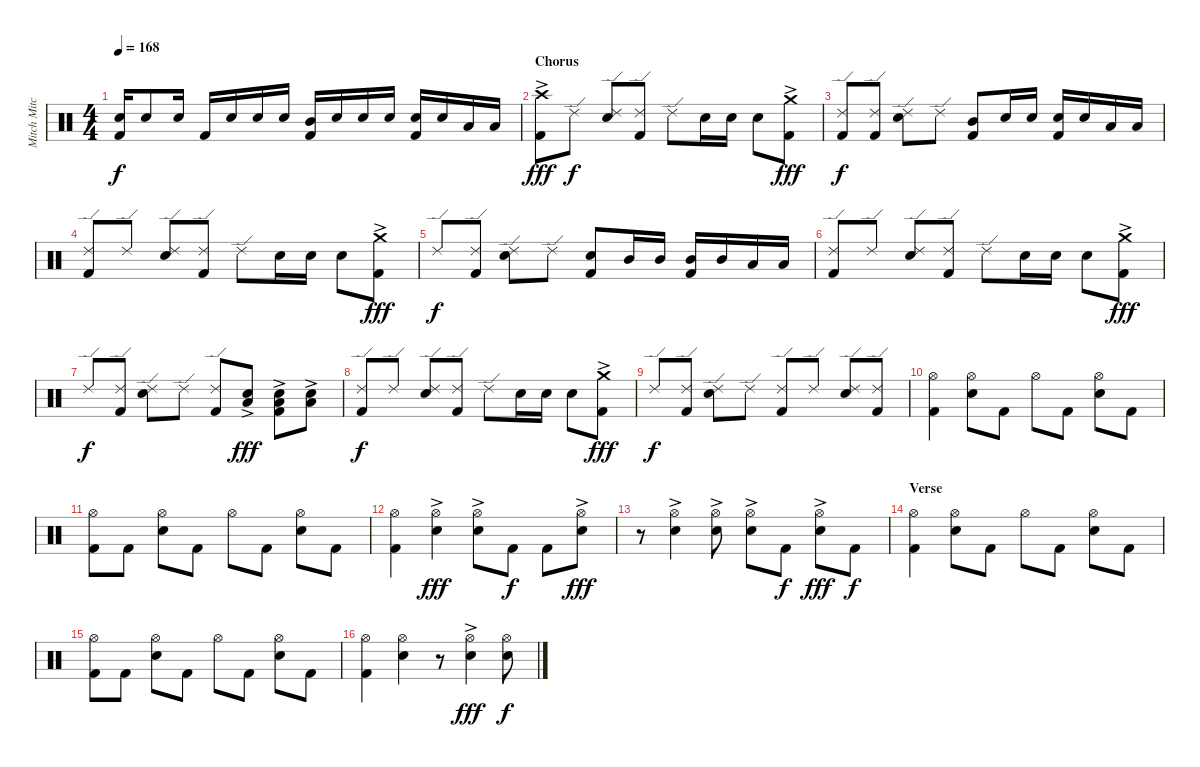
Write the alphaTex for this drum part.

\track ("Mitch Mitchell" "Mitch Mitc") {instrument percussion}
\staff {score}
\articulation defaults
\ts (4 4)
\tempo 168
\clef neutral
\ks c
("Snare (hit) 2" "Kick (hit) 2").16{dy f} "Snare (hit) 2".8 "Snare (hit) 2".16 "Kick (hit) 2".16 "Snare (hit) 2".16 "Snare (hit) 2".16 "Snare (hit) 2".16 ("Mid Tom (hit)" "Kick (hit) 2").16 "Snare (hit) 2".16 "Snare (hit) 2".16 "Snare (hit) 2".16 ("Snare (hit) 2" "Kick (hit) 2").16 "Snare (hit) 2".16 "Low Tom (hit)".16 "Low Tom (hit)".16 |
\section ("" "Chorus")
("Crash high (hit)"{ac} "Kick (hit) 2"{ac}).8{dy fff} "Ride (edge) 2".8{dy f} ("Ride (edge) 2" "Snare (hit) 2").8 ("Ride (edge) 2" "Kick (hit) 2").8 "Ride (edge) 2".8 "Snare (hit) 2".16 "Snare (hit) 2".16 "Snare (hit) 2".8 ("Crash medium (hit)"{ac} "Kick (hit) 2"{ac}).8{dy fff} |
("Ride (edge) 2" "Kick (hit) 2").8{dy f} ("Ride (edge) 2" "Kick (hit) 2").8 ("Ride (edge) 2" "Snare (hit) 2").8 "Ride (edge) 2".8 ("Mid Tom (hit)" "Kick (hit) 2").8 "Snare (hit) 2".16 "Snare (hit) 2".16 ("Snare (hit) 2" "Kick (hit) 2").16 "Snare (hit) 2".16 "Low Tom (hit)".16 "Low Tom (hit)".16 |
("Ride (edge) 2" "Kick (hit) 2").8 "Ride (edge) 2".8 ("Ride (edge) 2" "Snare (hit) 2").8 ("Ride (edge) 2" "Kick (hit) 2").8 "Ride (edge) 2".8 "Snare (hit) 2".16 "Snare (hit) 2".16 "Snare (hit) 2".8 ("Crash medium (hit)"{ac} "Kick (hit) 2"{ac}).8{dy fff} |
"Ride (edge) 2".8{dy f} ("Ride (edge) 2" "Kick (hit) 2").8 ("Ride (edge) 2" "Snare (hit) 2").8 "Ride (edge) 2".8 ("Snare (hit) 2" "Kick (hit) 2").8 "Mid Tom (hit)".16 "Mid Tom (hit)".16 ("Mid Tom (hit)" "Kick (hit) 2").16 "Mid Tom (hit)".16 "Low Tom (hit)".16 "Low Tom (hit)".16 |
("Ride (edge) 2" "Kick (hit) 2").8 "Ride (edge) 2".8 ("Ride (edge) 2" "Snare (hit) 2").8 ("Ride (edge) 2" "Kick (hit) 2").8 "Ride (edge) 2".8 "Snare (hit) 2".16 "Snare (hit) 2".16 "Snare (hit) 2".8 ("Crash medium (hit)"{ac} "Kick (hit) 2"{ac}).8{dy fff} |
"Ride (edge) 2".8{dy f} ("Ride (edge) 2" "Kick (hit) 2").8 ("Ride (edge) 2" "Snare (hit) 2").8 "Ride (edge) 2".8 ("Ride (edge) 2" "Kick (hit) 2").8 ("Snare (hit) 2"{ac} "Low Tom (hit)"{ac}).8{dy fff} ("Snare (hit) 2"{ac} "Low Tom (hit)"{ac} "Kick (hit) 2").8 ("Snare (hit) 2"{ac} "Low Tom (hit)"{ac}).8 |
("Ride (edge) 2" "Kick (hit) 2").8{dy f} "Ride (edge) 2".8 ("Ride (edge) 2" "Snare (hit) 2").8 ("Ride (edge) 2" "Kick (hit) 2").8 "Ride (edge) 2".8 "Snare (hit) 2".16 "Snare (hit) 2".16 "Snare (hit) 2".8 ("Crash medium (hit)"{ac} "Kick (hit) 2"{ac}).8{dy fff} |
"Ride (edge) 2".8{dy f} ("Ride (edge) 2" "Kick (hit) 2").8 ("Ride (edge) 2" "Snare (hit) 2").8 "Ride (edge) 2".8 ("Ride (edge) 2" "Kick (hit) 2").8 "Ride (edge) 2".8 ("Ride (edge) 2" "Snare (hit) 2").8 ("Ride (edge) 2" "Kick (hit) 2").8 |
("Hi-Hat (open)" "Kick (hit) 2").4 ("Hi-Hat (open)" "Snare (hit) 2").8 "Kick (hit) 2".8 "Hi-Hat (open)".8 "Kick (hit) 2".8 ("Hi-Hat (open)" "Snare (hit) 2").8 "Kick (hit) 2".8 |
("Hi-Hat (open)" "Kick (hit) 2").8 "Kick (hit) 2".8 ("Hi-Hat (open)" "Snare (hit) 2").8 "Kick (hit) 2".8 "Hi-Hat (open)".8 "Kick (hit) 2".8 ("Hi-Hat (open)" "Snare (hit) 2").8 "Kick (hit) 2".8 |
("Hi-Hat (open)" "Kick (hit) 2").4 ("Hi-Hat (open)"{ac} "Snare (hit) 2"{ac}).4{dy fff} ("Hi-Hat (open)"{ac} "Snare (hit) 2"{ac}).8 "Kick (hit) 2".8{dy f} "Kick (hit) 2".8 ("Hi-Hat (open)"{ac} "Snare (hit) 2"{ac}).8{dy fff} |
r.8 ("Hi-Hat (open)"{ac} "Snare (hit) 2"{ac}).4 ("Hi-Hat (open)"{ac} "Snare (hit) 2"{ac}).8 ("Hi-Hat (open)"{ac} "Snare (hit) 2"{ac}).8 "Kick (hit) 2".8{dy f} ("Hi-Hat (open)"{ac} "Snare (hit) 2"{ac}).8{dy fff} "Kick (hit) 2".8{dy f} |
\section ("" "Verse")
("Hi-Hat (open)" "Kick (hit) 2").4 ("Hi-Hat (open)" "Snare (hit) 2").8 "Kick (hit) 2".8 "Hi-Hat (open)".8 "Kick (hit) 2".8 ("Hi-Hat (open)" "Snare (hit) 2").8 "Kick (hit) 2".8 |
("Hi-Hat (open)" "Kick (hit) 2").8 "Kick (hit) 2".8 ("Hi-Hat (open)" "Snare (hit) 2").8 "Kick (hit) 2".8 "Hi-Hat (open)".8 "Kick (hit) 2".8 ("Hi-Hat (open)" "Snare (hit) 2").8 "Kick (hit) 2".8 |
("Hi-Hat (open)" "Kick (hit) 2").4 ("Hi-Hat (open)" "Snare (hit) 2").4 r.8 ("Hi-Hat (open)"{ac} "Snare (hit) 2"{ac}).4{dy fff} ("Hi-Hat (open)" "Snare (hit) 2").8{dy f}
